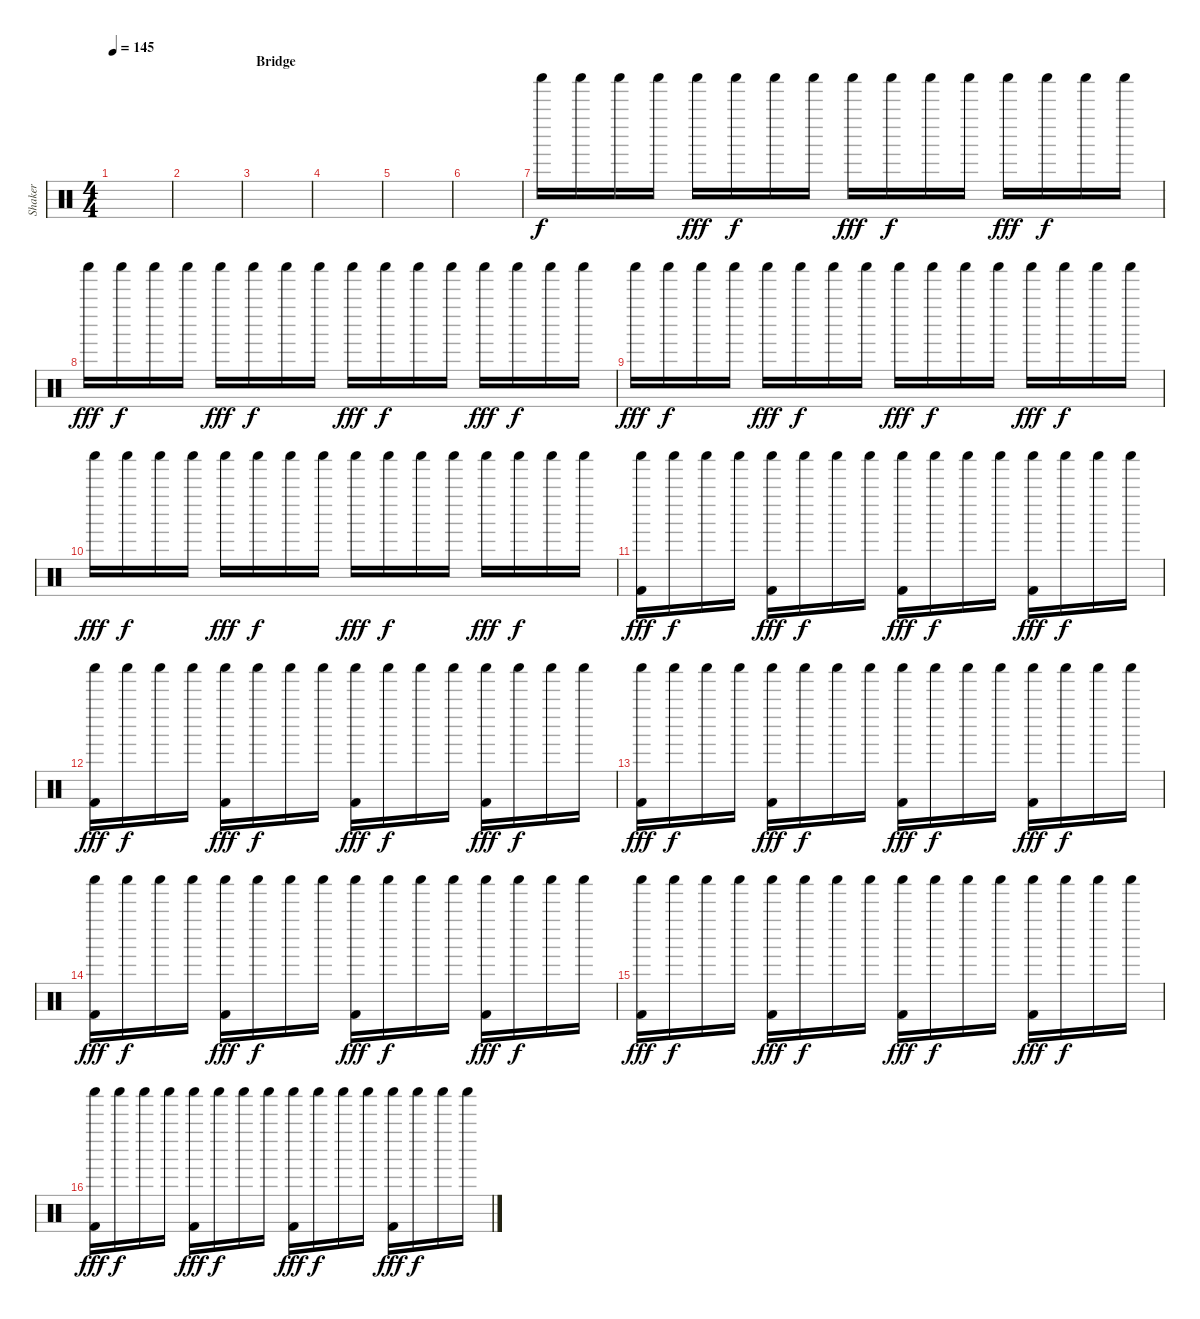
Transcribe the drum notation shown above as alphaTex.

\track ("Shaker" "Shaker") {instrument percussion}
\staff {score}
\articulation defaults
\ts (4 4)
\tempo 145
\clef neutral
\ks c
|
|
\section ("" "Bridge")
|
|
|
|
"Shaker (hit)".16 "Shaker (hit)".16{dy f} "Shaker (hit)".16 "Shaker (hit)".16 "Shaker (hit)".16{dy fff} "Shaker (hit)".16{dy f} "Shaker (hit)".16 "Shaker (hit)".16 "Shaker (hit)".16{dy fff} "Shaker (hit)".16{dy f} "Shaker (hit)".16 "Shaker (hit)".16 "Shaker (hit)".16{dy fff} "Shaker (hit)".16{dy f} "Shaker (hit)".16 "Shaker (hit)".16 |
"Shaker (hit)".16{dy fff} "Shaker (hit)".16{dy f} "Shaker (hit)".16 "Shaker (hit)".16 "Shaker (hit)".16{dy fff} "Shaker (hit)".16{dy f} "Shaker (hit)".16 "Shaker (hit)".16 "Shaker (hit)".16{dy fff} "Shaker (hit)".16{dy f} "Shaker (hit)".16 "Shaker (hit)".16 "Shaker (hit)".16{dy fff} "Shaker (hit)".16{dy f} "Shaker (hit)".16 "Shaker (hit)".16 |
"Shaker (hit)".16{dy fff} "Shaker (hit)".16{dy f} "Shaker (hit)".16 "Shaker (hit)".16 "Shaker (hit)".16{dy fff} "Shaker (hit)".16{dy f} "Shaker (hit)".16 "Shaker (hit)".16 "Shaker (hit)".16{dy fff} "Shaker (hit)".16{dy f} "Shaker (hit)".16 "Shaker (hit)".16 "Shaker (hit)".16{dy fff} "Shaker (hit)".16{dy f} "Shaker (hit)".16 "Shaker (hit)".16 |
"Shaker (hit)".16{dy fff} "Shaker (hit)".16{dy f} "Shaker (hit)".16 "Shaker (hit)".16 "Shaker (hit)".16{dy fff} "Shaker (hit)".16{dy f} "Shaker (hit)".16 "Shaker (hit)".16 "Shaker (hit)".16{dy fff} "Shaker (hit)".16{dy f} "Shaker (hit)".16 "Shaker (hit)".16 "Shaker (hit)".16{dy fff} "Shaker (hit)".16{dy f} "Shaker (hit)".16 "Shaker (hit)".16 |
("Shaker (hit)" "Kick (hit) 2").16{dy fff} "Shaker (hit)".16{dy f} "Shaker (hit)".16 "Shaker (hit)".16 ("Shaker (hit)" "Kick (hit) 2").16{dy fff} "Shaker (hit)".16{dy f} "Shaker (hit)".16 "Shaker (hit)".16 ("Shaker (hit)" "Kick (hit) 2").16{dy fff} "Shaker (hit)".16{dy f} "Shaker (hit)".16 "Shaker (hit)".16 ("Shaker (hit)" "Kick (hit) 2").16{dy fff} "Shaker (hit)".16{dy f} "Shaker (hit)".16 "Shaker (hit)".16 |
("Shaker (hit)" "Kick (hit) 2").16{dy fff} "Shaker (hit)".16{dy f} "Shaker (hit)".16 "Shaker (hit)".16 ("Shaker (hit)" "Kick (hit) 2").16{dy fff} "Shaker (hit)".16{dy f} "Shaker (hit)".16 "Shaker (hit)".16 ("Shaker (hit)" "Kick (hit) 2").16{dy fff} "Shaker (hit)".16{dy f} "Shaker (hit)".16 "Shaker (hit)".16 ("Shaker (hit)" "Kick (hit) 2").16{dy fff} "Shaker (hit)".16{dy f} "Shaker (hit)".16 "Shaker (hit)".16 |
("Shaker (hit)" "Kick (hit) 2").16{dy fff} "Shaker (hit)".16{dy f} "Shaker (hit)".16 "Shaker (hit)".16 ("Shaker (hit)" "Kick (hit) 2").16{dy fff} "Shaker (hit)".16{dy f} "Shaker (hit)".16 "Shaker (hit)".16 ("Shaker (hit)" "Kick (hit) 2").16{dy fff} "Shaker (hit)".16{dy f} "Shaker (hit)".16 "Shaker (hit)".16 ("Shaker (hit)" "Kick (hit) 2").16{dy fff} "Shaker (hit)".16{dy f} "Shaker (hit)".16 "Shaker (hit)".16 |
("Shaker (hit)" "Kick (hit) 2").16{dy fff} "Shaker (hit)".16{dy f} "Shaker (hit)".16 "Shaker (hit)".16 ("Shaker (hit)" "Kick (hit) 2").16{dy fff} "Shaker (hit)".16{dy f} "Shaker (hit)".16 "Shaker (hit)".16 ("Shaker (hit)" "Kick (hit) 2").16{dy fff} "Shaker (hit)".16{dy f} "Shaker (hit)".16 "Shaker (hit)".16 ("Shaker (hit)" "Kick (hit) 2").16{dy fff} "Shaker (hit)".16{dy f} "Shaker (hit)".16 "Shaker (hit)".16 |
("Shaker (hit)" "Kick (hit) 2").16{dy fff} "Shaker (hit)".16{dy f} "Shaker (hit)".16 "Shaker (hit)".16 ("Shaker (hit)" "Kick (hit) 2").16{dy fff} "Shaker (hit)".16{dy f} "Shaker (hit)".16 "Shaker (hit)".16 ("Shaker (hit)" "Kick (hit) 2").16{dy fff} "Shaker (hit)".16{dy f} "Shaker (hit)".16 "Shaker (hit)".16 ("Shaker (hit)" "Kick (hit) 2").16{dy fff} "Shaker (hit)".16{dy f} "Shaker (hit)".16 "Shaker (hit)".16 |
("Shaker (hit)" "Kick (hit) 2").16{dy fff} "Shaker (hit)".16{dy f} "Shaker (hit)".16 "Shaker (hit)".16 ("Shaker (hit)" "Kick (hit) 2").16{dy fff} "Shaker (hit)".16{dy f} "Shaker (hit)".16 "Shaker (hit)".16 ("Shaker (hit)" "Kick (hit) 2").16{dy fff} "Shaker (hit)".16{dy f} "Shaker (hit)".16 "Shaker (hit)".16 ("Shaker (hit)" "Kick (hit) 2").16{dy fff} "Shaker (hit)".16{dy f} "Shaker (hit)".16 "Shaker (hit)".16
